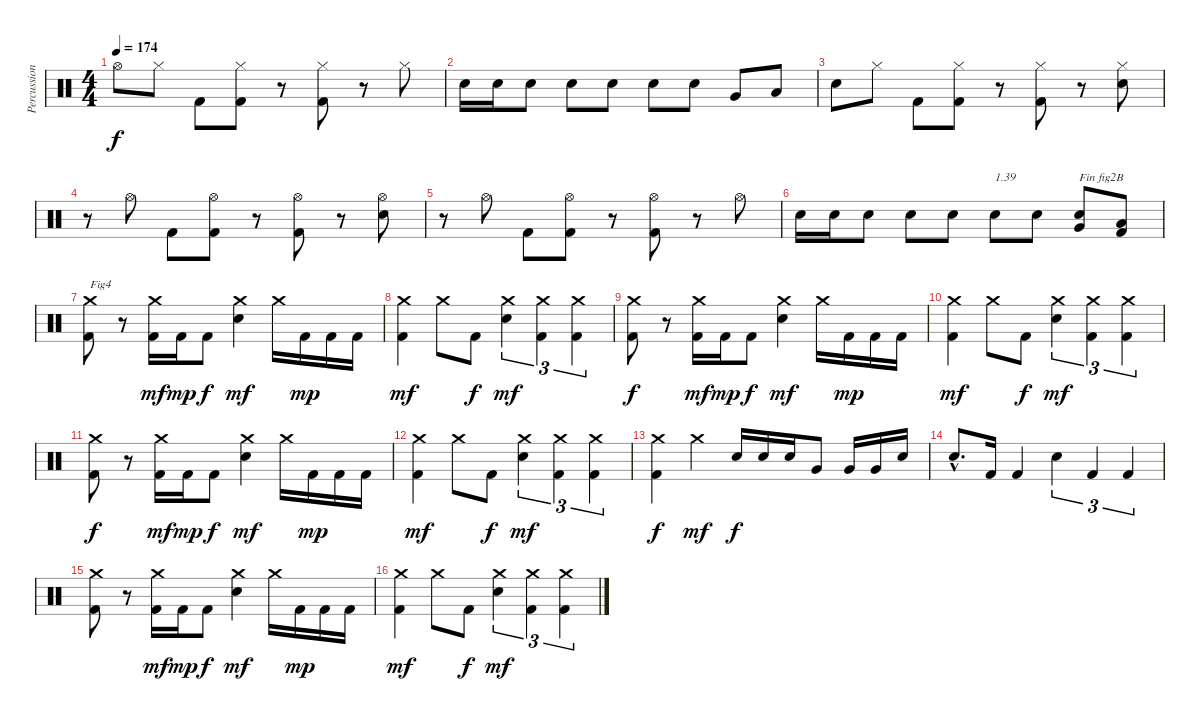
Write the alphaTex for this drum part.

\track ("Percussions" "Percussion") {instrument percussion}
\staff {score}
\articulation defaults
\ts (4 4)
\tempo 174
\clef neutral
\ks c "Hi-Hat (open)".8{dy f} "Hi-Hat (closed)".8 "Kick (hit) 2".8
("Kick (hit) 2" "Hi-Hat (closed)").8 r.8 ("Kick (hit) 2" "Hi-Hat (closed)").8 r.8 "Hi-Hat (closed)".8 |
"Electric Snare (hit)".16 "Electric Snare (hit)".16 "Electric Snare (hit)".8 "Electric Snare (hit)".8 "Electric Snare (hit)".8 "Electric Snare (hit)".8 "Electric Snare (hit)".8 "Very Low Tom (hit)".8 "Low Floor Tom (hit)".8 |
"Electric Snare (hit)".8 "Hi-Hat (closed)".8 "Kick (hit) 2".8 ("Kick (hit) 2" "Hi-Hat (closed)").8 r.8 ("Kick (hit) 2" "Hi-Hat (closed)").8 r.8 ("Electric Snare (hit)" "Hi-Hat (closed)").8 |
r.8 "Hi-Hat (open)".8 "Kick (hit) 2".8 ("Kick (hit) 2" "Hi-Hat (open)").8 r.8 ("Kick (hit) 2" "Hi-Hat (open)").8 r.8 ("Electric Snare (hit)" "Hi-Hat (open)").8 |
r.8 "Hi-Hat (open)".8 "Kick (hit) 2".8 ("Kick (hit) 2" "Hi-Hat (open)").8 r.8 ("Kick (hit) 2" "Hi-Hat (open)").8 r.8 "Hi-Hat (open)".8 |
"Electric Snare (hit)".16 "Electric Snare (hit)".16 "Electric Snare (hit)".8 "Electric Snare (hit)".8 "Electric Snare (hit)".8 "Electric Snare (hit)".8{txt "1.39"} "Electric Snare (hit)".8 ("Electric Snare (hit)" "Very Low Tom (hit)").8{txt "Fin fig2B"} ("Kick (hit) 2" "Low Floor Tom (hit)").8 |
("Kick (hit) 2" "Crash medium (hit)").8{txt "Fig4"} r.8 ("Kick (hit) 2" "Crash medium (hit)").16{dy mf} "Kick (hit) 2".16{dy mp} "Kick (hit) 2".8{dy f} ("Electric Snare (hit)" "Crash medium (hit)").4{dy mf} "Crash medium (hit)".16 "Kick (hit) 2".16{dy mp} "Kick (hit) 2".16 "Kick (hit) 2".16 |
("Kick (hit) 2" "Crash medium (hit)").4{dy mf} "Crash medium (hit)".8 "Kick (hit) 2".8{dy f} ("Electric Snare (hit)" "Crash medium (hit)").4{tu (3 2) dy mf} ("Kick (hit) 2" "Crash medium (hit)").4{tu (3 2)} ("Kick (hit) 2" "Crash medium (hit)").4{tu (3 2)} |
("Kick (hit) 2" "Crash medium (hit)").8{dy f} r.8 ("Kick (hit) 2" "Crash medium (hit)").16{dy mf} "Kick (hit) 2".16{dy mp} "Kick (hit) 2".8{dy f} ("Electric Snare (hit)" "Crash medium (hit)").4{dy mf} "Crash medium (hit)".16 "Kick (hit) 2".16{dy mp} "Kick (hit) 2".16 "Kick (hit) 2".16 |
("Kick (hit) 2" "Crash medium (hit)").4{dy mf} "Crash medium (hit)".8 "Kick (hit) 2".8{dy f} ("Electric Snare (hit)" "Crash medium (hit)").4{tu (3 2) dy mf} ("Kick (hit) 2" "Crash medium (hit)").4{tu (3 2)} ("Kick (hit) 2" "Crash medium (hit)").4{tu (3 2)} |
("Kick (hit) 2" "Crash medium (hit)").8{dy f} r.8 ("Kick (hit) 2" "Crash medium (hit)").16{dy mf} "Kick (hit) 2".16{dy mp} "Kick (hit) 2".8{dy f} ("Electric Snare (hit)" "Crash medium (hit)").4{dy mf} "Crash medium (hit)".16 "Kick (hit) 2".16{dy mp} "Kick (hit) 2".16 "Kick (hit) 2".16 |
("Kick (hit) 2" "Crash medium (hit)").4{dy mf} "Crash medium (hit)".8 "Kick (hit) 2".8{dy f} ("Electric Snare (hit)" "Crash medium (hit)").4{tu (3 2) dy mf} ("Kick (hit) 2" "Crash medium (hit)").4{tu (3 2)} ("Kick (hit) 2" "Crash medium (hit)").4{tu (3 2)} |
("Kick (hit) 2" "Crash medium (hit)").4{dy f} "Crash medium (hit)".4{dy mf} "Electric Snare (hit)".16{dy f} "Electric Snare (hit)".16 "Electric Snare (hit)".16 "Very Low Tom (hit)".8 "Very Low Tom (hit)".16 "Very Low Tom (hit)".16 "Electric Snare (hit)".16 |
"Electric Snare (hit)"{hac}.8{d} "Kick (hit) 2".16 "Kick (hit) 2".4 "Electric Snare (hit)".4{tu (3 2)} "Kick (hit) 2".4{tu (3 2)} "Kick (hit) 2".4{tu (3 2)} |
("Kick (hit) 2" "Crash medium (hit)").8 r.8 ("Kick (hit) 2" "Crash medium (hit)").16{dy mf} "Kick (hit) 2".16{dy mp} "Kick (hit) 2".8{dy f} ("Electric Snare (hit)" "Crash medium (hit)").4{dy mf} "Crash medium (hit)".16 "Kick (hit) 2".16{dy mp} "Kick (hit) 2".16 "Kick (hit) 2".16 |
("Kick (hit) 2" "Crash medium (hit)").4{dy mf} "Crash medium (hit)".8 "Kick (hit) 2".8{dy f} ("Electric Snare (hit)" "Crash medium (hit)").4{tu (3 2) dy mf} ("Kick (hit) 2" "Crash medium (hit)").4{tu (3 2)} ("Kick (hit) 2" "Crash medium (hit)").4{tu (3 2)}
